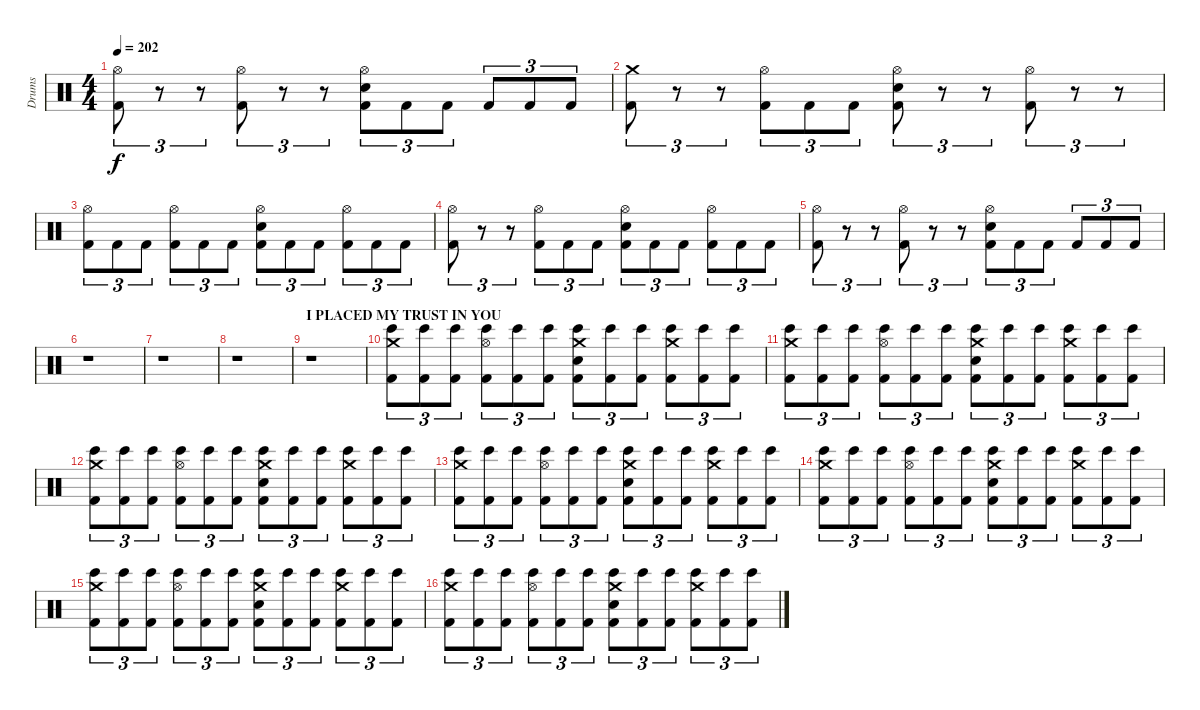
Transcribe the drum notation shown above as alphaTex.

\track ("Drums" "Drums") {instrument percussion}
\staff {score}
\articulation defaults
\ts (4 4)
\tempo 202
\clef neutral
\ks c
("Hi-Hat (open)" "Kick (hit) 2").8{tu (3 2) dy f} r.8{tu (3 2)} r.8{tu (3 2)} ("Hi-Hat (open)" "Kick (hit) 2").8{tu (3 2)} r.8{tu (3 2)} r.8{tu (3 2)} ("Hi-Hat (open)" "Electric Snare (hit)" "Kick (hit) 2").8{tu (3 2)} "Kick (hit) 2".8{tu (3 2)} "Kick (hit) 2".8{tu (3 2)} "Kick (hit) 2".8{tu (3 2)} "Kick (hit) 2".8{tu (3 2)} "Kick (hit) 2".8{tu (3 2)} |
("Crash medium (hit)" "Kick (hit) 2").8{tu (3 2)} r.8{tu (3 2)} r.8{tu (3 2)} ("Hi-Hat (open)" "Kick (hit) 2").8{tu (3 2)} "Kick (hit) 2".8{tu (3 2)} "Kick (hit) 2".8{tu (3 2)} ("Hi-Hat (open)" "Electric Snare (hit)" "Kick (hit) 2").8{tu (3 2)} r.8{tu (3 2)} r.8{tu (3 2)} ("Hi-Hat (open)" "Kick (hit) 2").8{tu (3 2)} r.8{tu (3 2)} r.8{tu (3 2)} |
("Hi-Hat (open)" "Kick (hit) 2").8{tu (3 2)} "Kick (hit) 2".8{tu (3 2)} "Kick (hit) 2".8{tu (3 2)} ("Hi-Hat (open)" "Kick (hit) 2").8{tu (3 2)} "Kick (hit) 2".8{tu (3 2)} "Kick (hit) 2".8{tu (3 2)} ("Hi-Hat (open)" "Electric Snare (hit)" "Kick (hit) 2").8{tu (3 2)} "Kick (hit) 2".8{tu (3 2)} "Kick (hit) 2".8{tu (3 2)} ("Hi-Hat (open)" "Kick (hit) 2").8{tu (3 2)} "Kick (hit) 2".8{tu (3 2)} "Kick (hit) 2".8{tu (3 2)} |
("Hi-Hat (open)" "Kick (hit) 2").8{tu (3 2)} r.8{tu (3 2)} r.8{tu (3 2)} ("Hi-Hat (open)" "Kick (hit) 2").8{tu (3 2)} "Kick (hit) 2".8{tu (3 2)} "Kick (hit) 2".8{tu (3 2)} ("Hi-Hat (open)" "Electric Snare (hit)" "Kick (hit) 2").8{tu (3 2)} "Kick (hit) 2".8{tu (3 2)} "Kick (hit) 2".8{tu (3 2)} ("Hi-Hat (open)" "Kick (hit) 2").8{tu (3 2)} "Kick (hit) 2".8{tu (3 2)} "Kick (hit) 2".8{tu (3 2)} |
("Hi-Hat (open)" "Kick (hit) 2").8{tu (3 2)} r.8{tu (3 2)} r.8{tu (3 2)} ("Hi-Hat (open)" "Kick (hit) 2").8{tu (3 2)} r.8{tu (3 2)} r.8{tu (3 2)} ("Hi-Hat (open)" "Electric Snare (hit)" "Kick (hit) 2").8{tu (3 2)} "Kick (hit) 2".8{tu (3 2)} "Kick (hit) 2".8{tu (3 2)} "Kick (hit) 2".8{tu (3 2)} "Kick (hit) 2".8{tu (3 2)} "Kick (hit) 2".8{tu (3 2)} |
r.1 |
r.1 |
r.1 |
\section ("" "I PLACED MY TRUST IN YOU")
r.1 |
("Crash medium (hit)" "Bongo High (hit)" "Kick (hit) 2").8{tu (3 2)} ("Bongo High (hit)" "Kick (hit) 2").8{tu (3 2)} ("Bongo High (hit)" "Kick (hit) 2").8{tu (3 2)} ("Bongo High (hit)" "Hi-Hat (open)" "Kick (hit) 2").8{tu (3 2)} ("Bongo High (hit)" "Kick (hit) 2").8{tu (3 2)} ("Bongo High (hit)" "Kick (hit) 2").8{tu (3 2)} ("Crash medium (hit)" "Bongo High (hit)" "Electric Snare (hit)" "Kick (hit) 2").8{tu (3 2)} ("Bongo High (hit)" "Kick (hit) 2").8{tu (3 2)} ("Bongo High (hit)" "Kick (hit) 2").8{tu (3 2)} ("Crash medium (hit)" "Bongo High (hit)" "Kick (hit) 2").8{tu (3 2)} ("Bongo High (hit)" "Kick (hit) 2").8{tu (3 2)} ("Bongo High (hit)" "Kick (hit) 2").8{tu (3 2)} |
("Crash medium (hit)" "Bongo High (hit)" "Kick (hit) 2").8{tu (3 2)} ("Bongo High (hit)" "Kick (hit) 2").8{tu (3 2)} ("Bongo High (hit)" "Kick (hit) 2").8{tu (3 2)} ("Bongo High (hit)" "Hi-Hat (open)" "Kick (hit) 2").8{tu (3 2)} ("Bongo High (hit)" "Kick (hit) 2").8{tu (3 2)} ("Bongo High (hit)" "Kick (hit) 2").8{tu (3 2)} ("Crash medium (hit)" "Bongo High (hit)" "Electric Snare (hit)" "Kick (hit) 2").8{tu (3 2)} ("Bongo High (hit)" "Kick (hit) 2").8{tu (3 2)} ("Bongo High (hit)" "Kick (hit) 2").8{tu (3 2)} ("Crash medium (hit)" "Bongo High (hit)" "Kick (hit) 2").8{tu (3 2)} ("Bongo High (hit)" "Kick (hit) 2").8{tu (3 2)} ("Bongo High (hit)" "Kick (hit) 2").8{tu (3 2)} |
("Crash medium (hit)" "Bongo High (hit)" "Kick (hit) 2").8{tu (3 2)} ("Bongo High (hit)" "Kick (hit) 2").8{tu (3 2)} ("Bongo High (hit)" "Kick (hit) 2").8{tu (3 2)} ("Bongo High (hit)" "Hi-Hat (open)" "Kick (hit) 2").8{tu (3 2)} ("Bongo High (hit)" "Kick (hit) 2").8{tu (3 2)} ("Bongo High (hit)" "Kick (hit) 2").8{tu (3 2)} ("Crash medium (hit)" "Bongo High (hit)" "Electric Snare (hit)" "Kick (hit) 2").8{tu (3 2)} ("Bongo High (hit)" "Kick (hit) 2").8{tu (3 2)} ("Bongo High (hit)" "Kick (hit) 2").8{tu (3 2)} ("Crash medium (hit)" "Bongo High (hit)" "Kick (hit) 2").8{tu (3 2)} ("Bongo High (hit)" "Kick (hit) 2").8{tu (3 2)} ("Bongo High (hit)" "Kick (hit) 2").8{tu (3 2)} |
("Crash medium (hit)" "Bongo High (hit)" "Kick (hit) 2").8{tu (3 2)} ("Bongo High (hit)" "Kick (hit) 2").8{tu (3 2)} ("Bongo High (hit)" "Kick (hit) 2").8{tu (3 2)} ("Bongo High (hit)" "Hi-Hat (open)" "Kick (hit) 2").8{tu (3 2)} ("Bongo High (hit)" "Kick (hit) 2").8{tu (3 2)} ("Bongo High (hit)" "Kick (hit) 2").8{tu (3 2)} ("Crash medium (hit)" "Bongo High (hit)" "Electric Snare (hit)" "Kick (hit) 2").8{tu (3 2)} ("Bongo High (hit)" "Kick (hit) 2").8{tu (3 2)} ("Bongo High (hit)" "Kick (hit) 2").8{tu (3 2)} ("Crash medium (hit)" "Bongo High (hit)" "Kick (hit) 2").8{tu (3 2)} ("Bongo High (hit)" "Kick (hit) 2").8{tu (3 2)} ("Bongo High (hit)" "Kick (hit) 2").8{tu (3 2)} |
("Crash medium (hit)" "Bongo High (hit)" "Kick (hit) 2").8{tu (3 2)} ("Bongo High (hit)" "Kick (hit) 2").8{tu (3 2)} ("Bongo High (hit)" "Kick (hit) 2").8{tu (3 2)} ("Bongo High (hit)" "Hi-Hat (open)" "Kick (hit) 2").8{tu (3 2)} ("Bongo High (hit)" "Kick (hit) 2").8{tu (3 2)} ("Bongo High (hit)" "Kick (hit) 2").8{tu (3 2)} ("Crash medium (hit)" "Bongo High (hit)" "Electric Snare (hit)" "Kick (hit) 2").8{tu (3 2)} ("Bongo High (hit)" "Kick (hit) 2").8{tu (3 2)} ("Bongo High (hit)" "Kick (hit) 2").8{tu (3 2)} ("Crash medium (hit)" "Bongo High (hit)" "Kick (hit) 2").8{tu (3 2)} ("Bongo High (hit)" "Kick (hit) 2").8{tu (3 2)} ("Bongo High (hit)" "Kick (hit) 2").8{tu (3 2)} |
("Crash medium (hit)" "Bongo High (hit)" "Kick (hit) 2").8{tu (3 2)} ("Bongo High (hit)" "Kick (hit) 2").8{tu (3 2)} ("Bongo High (hit)" "Kick (hit) 2").8{tu (3 2)} ("Bongo High (hit)" "Hi-Hat (open)" "Kick (hit) 2").8{tu (3 2)} ("Bongo High (hit)" "Kick (hit) 2").8{tu (3 2)} ("Bongo High (hit)" "Kick (hit) 2").8{tu (3 2)} ("Crash medium (hit)" "Bongo High (hit)" "Electric Snare (hit)" "Kick (hit) 2").8{tu (3 2)} ("Bongo High (hit)" "Kick (hit) 2").8{tu (3 2)} ("Bongo High (hit)" "Kick (hit) 2").8{tu (3 2)} ("Crash medium (hit)" "Bongo High (hit)" "Kick (hit) 2").8{tu (3 2)} ("Bongo High (hit)" "Kick (hit) 2").8{tu (3 2)} ("Bongo High (hit)" "Kick (hit) 2").8{tu (3 2)} |
("Crash medium (hit)" "Bongo High (hit)" "Kick (hit) 2").8{tu (3 2)} ("Bongo High (hit)" "Kick (hit) 2").8{tu (3 2)} ("Bongo High (hit)" "Kick (hit) 2").8{tu (3 2)} ("Bongo High (hit)" "Hi-Hat (open)" "Kick (hit) 2").8{tu (3 2)} ("Bongo High (hit)" "Kick (hit) 2").8{tu (3 2)} ("Bongo High (hit)" "Kick (hit) 2").8{tu (3 2)} ("Crash medium (hit)" "Bongo High (hit)" "Electric Snare (hit)" "Kick (hit) 2").8{tu (3 2)} ("Bongo High (hit)" "Kick (hit) 2").8{tu (3 2)} ("Bongo High (hit)" "Kick (hit) 2").8{tu (3 2)} ("Crash medium (hit)" "Bongo High (hit)" "Kick (hit) 2").8{tu (3 2)} ("Bongo High (hit)" "Kick (hit) 2").8{tu (3 2)} ("Bongo High (hit)" "Kick (hit) 2").8{tu (3 2)}
